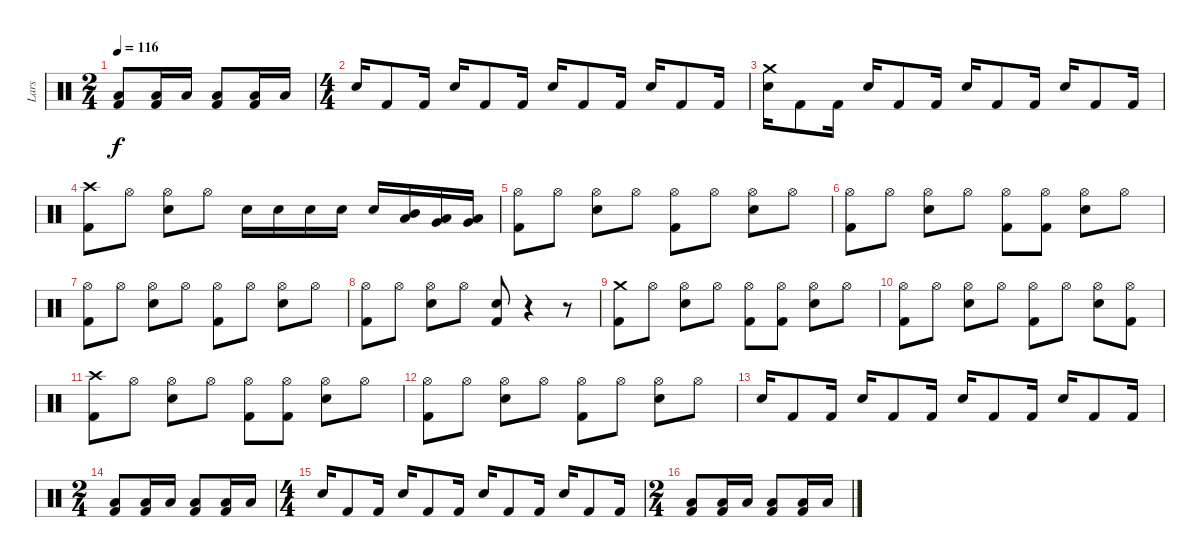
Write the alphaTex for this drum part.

\track ("Lars" "Lars") {instrument percussion}
\staff {score}
\articulation defaults
\ts (2 4)
\tempo 116
\clef neutral
\ks c
("Kick (hit) 2" "Low Floor Tom (hit)").8{dy f} ("Kick (hit) 2" "Low Floor Tom (hit)").16 "Low Floor Tom (hit)".16 ("Kick (hit) 2" "Low Floor Tom (hit)").8 ("Kick (hit) 2" "Low Floor Tom (hit)").16 "Low Floor Tom (hit)".16 |
\ts (4 4)
"Snare (hit) 2".16 "Kick (hit) 2".8 "Kick (hit) 2".16 "Snare (hit) 2".16 "Kick (hit) 2".8 "Kick (hit) 2".16 "Snare (hit) 2".16 "Kick (hit) 2".8 "Kick (hit) 2".16 "Snare (hit) 2".16 "Kick (hit) 2".8 "Kick (hit) 2".16 |
("Crash medium (hit)" "Snare (hit) 2").16 "Kick (hit) 2".8 "Kick (hit) 2".16 "Snare (hit) 2".16 "Kick (hit) 2".8 "Kick (hit) 2".16 "Snare (hit) 2".16 "Kick (hit) 2".8 "Kick (hit) 2".16 "Snare (hit) 2".16 "Kick (hit) 2".8 "Kick (hit) 2".16 |
("Crash high (hit)" "Kick (hit) 2").8 "Hi-Hat (open)".8 ("Snare (hit) 2" "Hi-Hat (open)").8 "Hi-Hat (open)".8 "Snare (hit) 2".16 "Snare (hit) 2".16 "Snare (hit) 2".16 "Snare (hit) 2".16 "Snare (hit) 2".16 ("Low Tom (hit)" "Mid Tom (hit)").16 ("Low Tom (hit)" "Very Low Tom (hit)").16 ("Low Floor Tom (hit)" "Very Low Tom (hit)").16 |
("Kick (hit) 2" "Hi-Hat (open)").8 "Hi-Hat (open)".8 ("Snare (hit) 2" "Hi-Hat (open)").8 "Hi-Hat (open)".8 ("Kick (hit) 2" "Hi-Hat (open)").8 "Hi-Hat (open)".8 ("Hi-Hat (open)" "Snare (hit) 2").8 "Hi-Hat (open)".8 |
("Kick (hit) 2" "Hi-Hat (open)").8 "Hi-Hat (open)".8 ("Snare (hit) 2" "Hi-Hat (open)").8 "Hi-Hat (open)".8 ("Kick (hit) 2" "Hi-Hat (open)").8 ("Kick (hit) 2" "Hi-Hat (open)").8 ("Hi-Hat (open)" "Snare (hit) 2").8 "Hi-Hat (open)".8 |
("Kick (hit) 2" "Hi-Hat (open)").8 "Hi-Hat (open)".8 ("Snare (hit) 2" "Hi-Hat (open)").8 "Hi-Hat (open)".8 ("Kick (hit) 2" "Hi-Hat (open)").8 "Hi-Hat (open)".8 ("Hi-Hat (open)" "Snare (hit) 2").8 "Hi-Hat (open)".8 |
("Kick (hit) 2" "Hi-Hat (open)").8 "Hi-Hat (open)".8 ("Hi-Hat (open)" "Snare (hit) 2").8 "Hi-Hat (open)".8 ("Snare (hit) 2" "Kick (hit) 2").8 r.4 r.8 |
("Crash medium (hit)" "Kick (hit) 2").8 "Hi-Hat (open)".8 ("Hi-Hat (open)" "Snare (hit) 2").8 "Hi-Hat (open)".8 ("Kick (hit) 2" "Hi-Hat (open)").8 ("Kick (hit) 2" "Hi-Hat (open)").8 ("Snare (hit) 2" "Hi-Hat (open)").8 "Hi-Hat (open)".8 |
("Kick (hit) 2" "Hi-Hat (open)").8 "Hi-Hat (open)".8 ("Snare (hit) 2" "Hi-Hat (open)").8 "Hi-Hat (open)".8 ("Kick (hit) 2" "Hi-Hat (open)").8 "Hi-Hat (open)".8 ("Snare (hit) 2" "Hi-Hat (open)").8 ("Kick (hit) 2" "Hi-Hat (open)").8 |
("Crash high (hit)" "Kick (hit) 2").8 "Hi-Hat (open)".8 ("Snare (hit) 2" "Hi-Hat (open)").8 "Hi-Hat (open)".8 ("Hi-Hat (open)" "Kick (hit) 2").8 ("Hi-Hat (open)" "Kick (hit) 2").8 ("Hi-Hat (open)" "Snare (hit) 2").8 "Hi-Hat (open)".8 |
("Kick (hit) 2" "Hi-Hat (open)").8 "Hi-Hat (open)".8 ("Hi-Hat (open)" "Snare (hit) 2").8 "Hi-Hat (open)".8 ("Hi-Hat (open)" "Kick (hit) 2").8 "Hi-Hat (open)".8 ("Snare (hit) 2" "Hi-Hat (open)").8 "Hi-Hat (open)".8 |
"Snare (hit) 2".16 "Kick (hit) 2".8 "Kick (hit) 2".16 "Snare (hit) 2".16 "Kick (hit) 2".8 "Kick (hit) 2".16 "Snare (hit) 2".16 "Kick (hit) 2".8 "Kick (hit) 2".16 "Snare (hit) 2".16 "Kick (hit) 2".8 "Kick (hit) 2".16 |
\ts (2 4)
("Low Floor Tom (hit)" "Kick (hit) 2").8 ("Kick (hit) 2" "Low Floor Tom (hit)").16 "Low Floor Tom (hit)".16 ("Low Floor Tom (hit)" "Kick (hit) 2").8 ("Kick (hit) 2" "Low Floor Tom (hit)").16 "Low Floor Tom (hit)".16 |
\ts (4 4)
"Snare (hit) 2".16 "Kick (hit) 2".8 "Kick (hit) 2".16 "Snare (hit) 2".16 "Kick (hit) 2".8 "Kick (hit) 2".16 "Snare (hit) 2".16 "Kick (hit) 2".8 "Kick (hit) 2".16 "Snare (hit) 2".16 "Kick (hit) 2".8 "Kick (hit) 2".16 |
\ts (2 4)
("Low Floor Tom (hit)" "Kick (hit) 2").8 ("Kick (hit) 2" "Low Floor Tom (hit)").16 "Low Floor Tom (hit)".16 ("Low Floor Tom (hit)" "Kick (hit) 2").8 ("Kick (hit) 2" "Low Floor Tom (hit)").16 "Low Floor Tom (hit)".16
